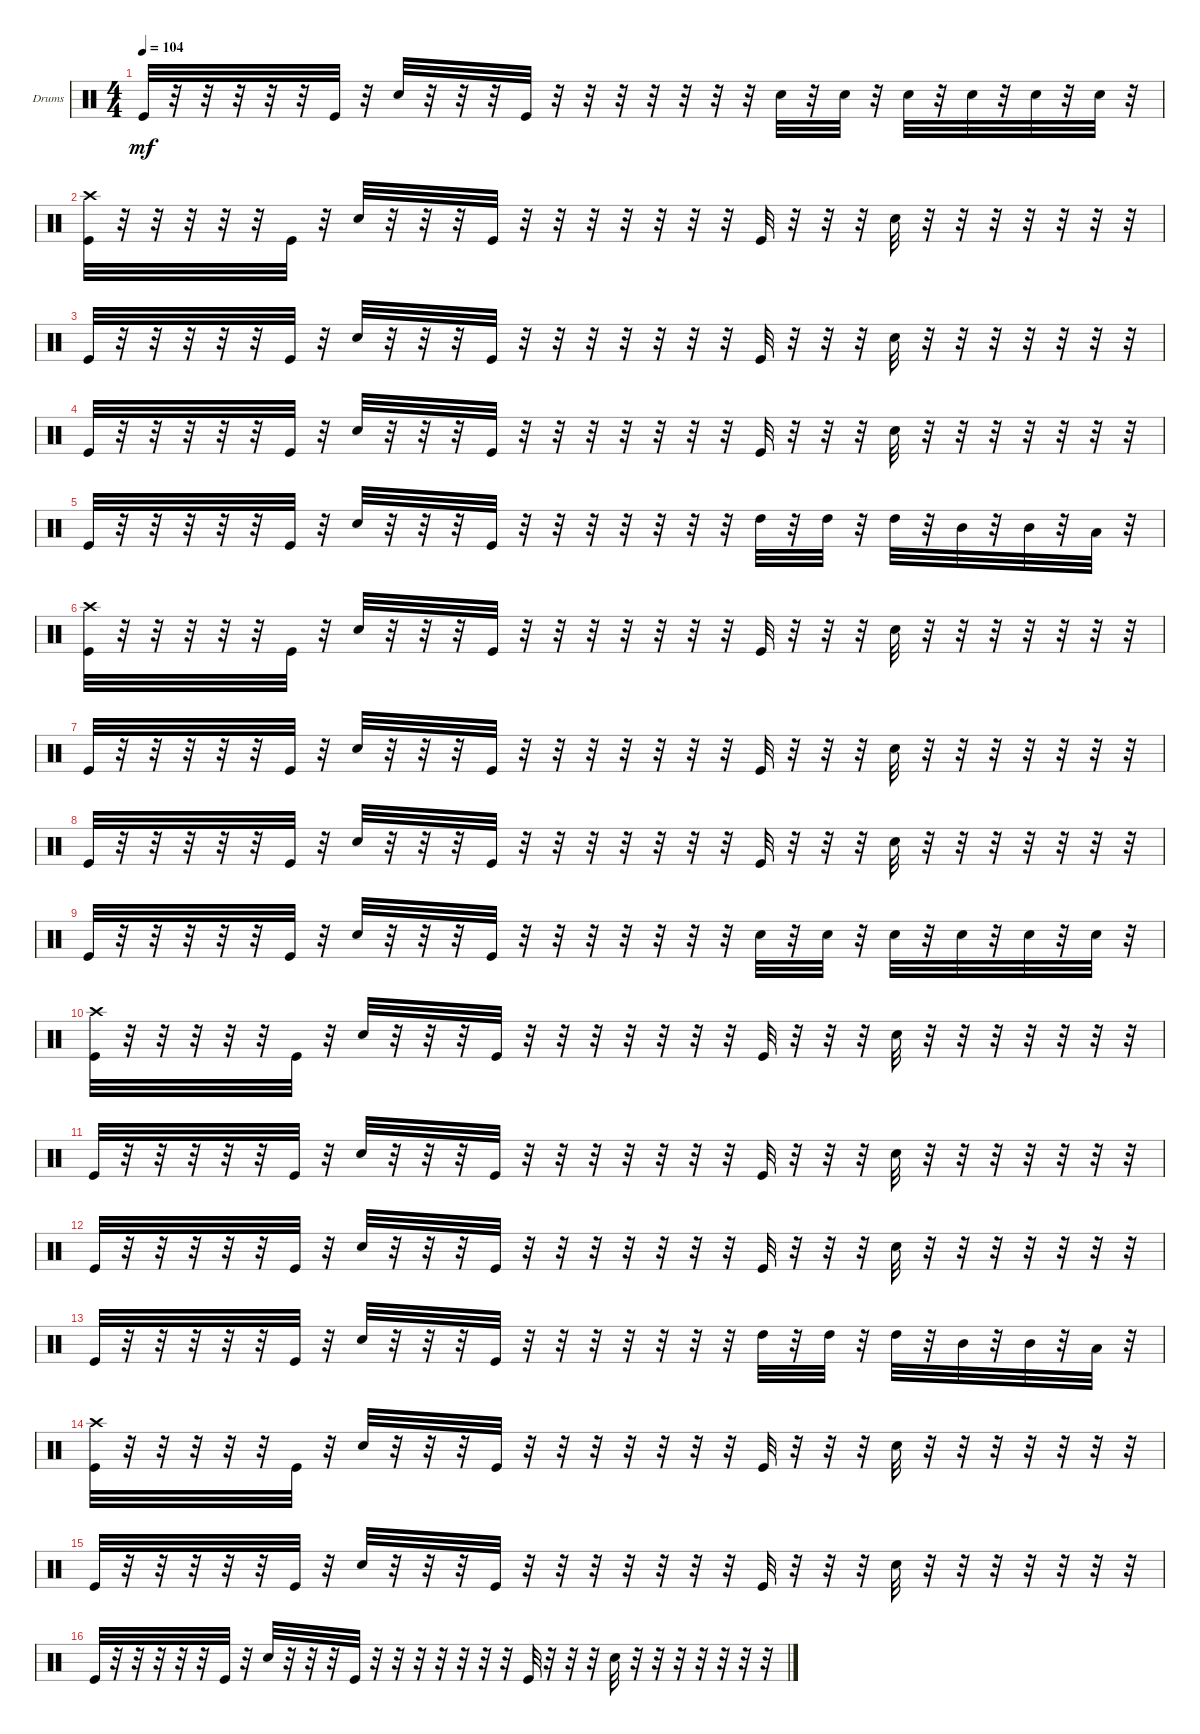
\bracketExtendMode groupsimilarinstruments
\firstSystemTrackNameOrientation horizontal
\otherSystemsTrackNameOrientation horizontal
\track ("" "Drums") {instrument percussion}
\staff {score}
\articulation defaults
\ts (4 4)
\tempo 104
\clef neutral
\ks c "Kick (hit)".32{dy mf}
r.32 r.32 r.32 r.32 r.32 "Kick (hit)".32 r.32 "Snare (hit) 2".32 r.32 r.32 r.32 "Kick (hit)".32 r.32 r.32 r.32 r.32 r.32 r.32 r.32 "Snare (hit) 2".32 r.32 "Snare (hit) 2".32 r.32 "Snare (hit) 2".32 r.32 "Snare (hit) 2".32 r.32 "Snare (hit) 2".32 r.32 "Snare (hit) 2".32 r.32 |
("Crash high (hit)" "Kick (hit)").32 r.32 r.32 r.32 r.32 r.32 "Kick (hit)".32 r.32 "Snare (hit) 2".32 r.32 r.32 r.32 "Kick (hit)".32 r.32 r.32 r.32 r.32 r.32 r.32 r.32 "Kick (hit)".32 r.32 r.32 r.32 "Snare (hit) 2".32 r.32 r.32 r.32 r.32 r.32 r.32 r.32 |
"Kick (hit)".32 r.32 r.32 r.32 r.32 r.32 "Kick (hit)".32 r.32 "Snare (hit) 2".32 r.32 r.32 r.32 "Kick (hit)".32 r.32 r.32 r.32 r.32 r.32 r.32 r.32 "Kick (hit)".32 r.32 r.32 r.32 "Snare (hit) 2".32 r.32 r.32 r.32 r.32 r.32 r.32 r.32 |
"Kick (hit)".32 r.32 r.32 r.32 r.32 r.32 "Kick (hit)".32 r.32 "Snare (hit) 2".32 r.32 r.32 r.32 "Kick (hit)".32 r.32 r.32 r.32 r.32 r.32 r.32 r.32 "Kick (hit)".32 r.32 r.32 r.32 "Snare (hit) 2".32 r.32 r.32 r.32 r.32 r.32 r.32 r.32 |
"Kick (hit)".32 r.32 r.32 r.32 r.32 r.32 "Kick (hit)".32 r.32 "Snare (hit) 2".32 r.32 r.32 r.32 "Kick (hit)".32 r.32 r.32 r.32 r.32 r.32 r.32 r.32 "High Tom (hit)".32 r.32 "High Tom (hit)".32 r.32 "High Tom (hit)".32 r.32 "Mid Tom (hit)".32 r.32 "Mid Tom (hit)".32 r.32 "Low Tom (hit)".32 r.32 |
("Crash high (hit)" "Kick (hit)").32 r.32 r.32 r.32 r.32 r.32 "Kick (hit)".32 r.32 "Snare (hit) 2".32 r.32 r.32 r.32 "Kick (hit)".32 r.32 r.32 r.32 r.32 r.32 r.32 r.32 "Kick (hit)".32 r.32 r.32 r.32 "Snare (hit) 2".32 r.32 r.32 r.32 r.32 r.32 r.32 r.32 |
"Kick (hit)".32 r.32 r.32 r.32 r.32 r.32 "Kick (hit)".32 r.32 "Snare (hit) 2".32 r.32 r.32 r.32 "Kick (hit)".32 r.32 r.32 r.32 r.32 r.32 r.32 r.32 "Kick (hit)".32 r.32 r.32 r.32 "Snare (hit) 2".32 r.32 r.32 r.32 r.32 r.32 r.32 r.32 |
"Kick (hit)".32 r.32 r.32 r.32 r.32 r.32 "Kick (hit)".32 r.32 "Snare (hit) 2".32 r.32 r.32 r.32 "Kick (hit)".32 r.32 r.32 r.32 r.32 r.32 r.32 r.32 "Kick (hit)".32 r.32 r.32 r.32 "Snare (hit) 2".32 r.32 r.32 r.32 r.32 r.32 r.32 r.32 |
"Kick (hit)".32 r.32 r.32 r.32 r.32 r.32 "Kick (hit)".32 r.32 "Snare (hit) 2".32 r.32 r.32 r.32 "Kick (hit)".32 r.32 r.32 r.32 r.32 r.32 r.32 r.32 "Snare (hit) 2".32 r.32 "Snare (hit) 2".32 r.32 "Snare (hit) 2".32 r.32 "Snare (hit) 2".32 r.32 "Snare (hit) 2".32 r.32 "Snare (hit) 2".32 r.32 |
("Crash high (hit)" "Kick (hit)").32 r.32 r.32 r.32 r.32 r.32 "Kick (hit)".32 r.32 "Snare (hit) 2".32 r.32 r.32 r.32 "Kick (hit)".32 r.32 r.32 r.32 r.32 r.32 r.32 r.32 "Kick (hit)".32 r.32 r.32 r.32 "Snare (hit) 2".32 r.32 r.32 r.32 r.32 r.32 r.32 r.32 |
"Kick (hit)".32 r.32 r.32 r.32 r.32 r.32 "Kick (hit)".32 r.32 "Snare (hit) 2".32 r.32 r.32 r.32 "Kick (hit)".32 r.32 r.32 r.32 r.32 r.32 r.32 r.32 "Kick (hit)".32 r.32 r.32 r.32 "Snare (hit) 2".32 r.32 r.32 r.32 r.32 r.32 r.32 r.32 |
"Kick (hit)".32 r.32 r.32 r.32 r.32 r.32 "Kick (hit)".32 r.32 "Snare (hit) 2".32 r.32 r.32 r.32 "Kick (hit)".32 r.32 r.32 r.32 r.32 r.32 r.32 r.32 "Kick (hit)".32 r.32 r.32 r.32 "Snare (hit) 2".32 r.32 r.32 r.32 r.32 r.32 r.32 r.32 |
"Kick (hit)".32 r.32 r.32 r.32 r.32 r.32 "Kick (hit)".32 r.32 "Snare (hit) 2".32 r.32 r.32 r.32 "Kick (hit)".32 r.32 r.32 r.32 r.32 r.32 r.32 r.32 "High Tom (hit)".32 r.32 "High Tom (hit)".32 r.32 "High Tom (hit)".32 r.32 "Mid Tom (hit)".32 r.32 "Mid Tom (hit)".32 r.32 "Low Tom (hit)".32 r.32 |
("Crash high (hit)" "Kick (hit)").32 r.32 r.32 r.32 r.32 r.32 "Kick (hit)".32 r.32 "Snare (hit) 2".32 r.32 r.32 r.32 "Kick (hit)".32 r.32 r.32 r.32 r.32 r.32 r.32 r.32 "Kick (hit)".32 r.32 r.32 r.32 "Snare (hit) 2".32 r.32 r.32 r.32 r.32 r.32 r.32 r.32 |
"Kick (hit)".32 r.32 r.32 r.32 r.32 r.32 "Kick (hit)".32 r.32 "Snare (hit) 2".32 r.32 r.32 r.32 "Kick (hit)".32 r.32 r.32 r.32 r.32 r.32 r.32 r.32 "Kick (hit)".32 r.32 r.32 r.32 "Snare (hit) 2".32 r.32 r.32 r.32 r.32 r.32 r.32 r.32 |
"Kick (hit)".32 r.32 r.32 r.32 r.32 r.32 "Kick (hit)".32 r.32 "Snare (hit) 2".32 r.32 r.32 r.32 "Kick (hit)".32 r.32 r.32 r.32 r.32 r.32 r.32 r.32 "Kick (hit)".32 r.32 r.32 r.32 "Snare (hit) 2".32 r.32 r.32 r.32 r.32 r.32 r.32 r.32
